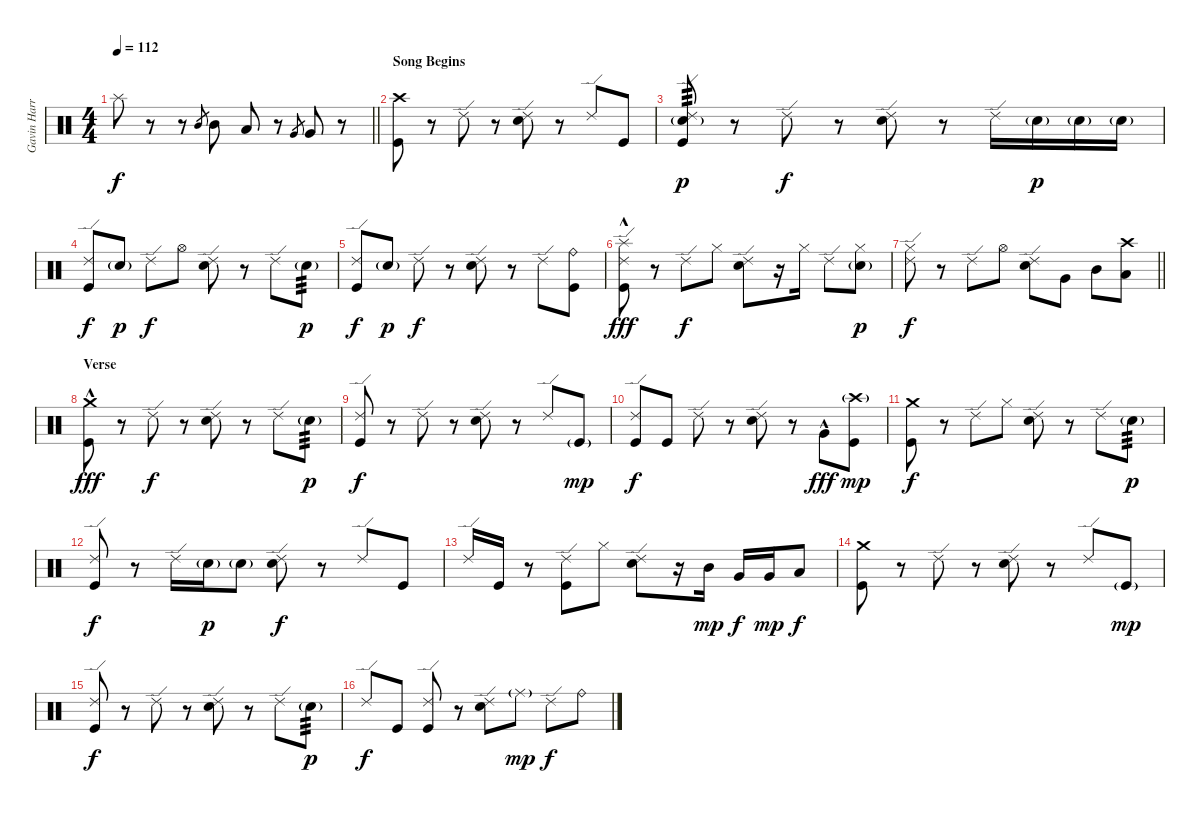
\track ("Gavin Harrison - Drums" "Gavin Harr") {instrument percussion}
\staff {score}
\articulation defaults
\ts (4 4)
\tempo 112
\clef neutral
\barLineRight lightlight
\ks c "Splash (hit)".8{dy f}
r.8 r.8 "Mid Tom (hit)".8{gr} "Mid Tom (hit)".8 "Low Floor Tom (hit)".8 r.8 "Very Low Tom (hit)".8{gr} "Very Low Tom (hit)".8 r.8 |
\section ("" "Song Begins")
("Crash high (hit)" "Kick (hit)").8 r.8 "Ride (edge) 2".8 r.8 ("Ride (edge) 2" "Snare (hit) 2").8 r.8 "Ride (edge) 2".8 "Kick (hit)".8 |
("Ride (edge) 2" "Snare (hit) 2"{g} "Kick (hit)").8{tp 3 dy p} r.8 "Ride (edge) 2".8{dy f} r.8 ("Ride (edge) 2" "Snare (hit) 2").8 r.8 "Ride (edge) 2".16 "Snare (hit) 2"{g}.16{dy p} "Snare (hit) 2"{g}.16 "Snare (hit) 2"{g}.16 |
("Ride (edge) 2" "Kick (hit)").8{dy f} "Snare (hit) 2"{g}.8{dy p} "Ride (edge) 2".8{dy f} "Hi-Hat (open)".8 ("Ride (edge) 2" "Snare (hit) 2").8 r.8 "Ride (edge) 2".8 "Snare (hit) 2"{g}.8{tp 3 dy p} |
("Ride (edge) 2" "Kick (hit)").8{dy f} "Snare (hit) 2"{g}.8{dy p} "Ride (edge) 2".8{dy f} r.8 ("Ride (edge) 2" "Snare (hit) 2").8 r.8 "Ride (edge) 2".8 ("Ride (bell)" "Kick (hit)").8 |
("Ride (edge) 2" "Splash (hit)"{hac} "Kick (hit)").8{dy fff} r.8 "Ride (edge) 2".8{dy f} "Hi-Hat (closed)".8 ("Ride (edge) 2" "Snare (hit) 2").8 r.16 "Hi-Hat (closed)".16 "Ride (edge) 2".8 ("Hi-Hat (closed)" "Snare (hit) 2"{g}).8{dy p} |
\barLineRight lightlight
("Ride (edge) 2" "Hi-Hat (closed)").8{dy f} r.8 "Ride (edge) 2".8 "Hi-Hat (open)".8 ("Ride (edge) 2" "Snare (hit) 2").8 "Very Low Tom (hit)".8 "Mid Tom (hit)".8 ("Crash high (hit)" "Low Floor Tom (hit)").8 |
\section ("" "Verse")
("Crash medium (hit)"{hac} "Kick (hit)").8{dy fff} r.8 "Ride (edge) 2".8{dy f} r.8 ("Ride (edge) 2" "Snare (hit) 2").8 r.8 "Ride (edge) 2".8 "Snare (hit) 2"{g}.8{tp 3 dy p} |
("Ride (edge) 2" "Kick (hit)").8{dy f} r.8 "Ride (edge) 2".8 r.8 ("Ride (edge) 2" "Snare (hit) 2").8 r.8 "Ride (edge) 2".8 "Kick (hit)"{g}.8{dy mp} |
("Ride (edge) 2" "Kick (hit)").8{dy f} "Kick (hit)".8 "Ride (edge) 2".8 r.8 ("Ride (edge) 2" "Snare (hit) 2").8 r.8 "Very Low Tom (hit)"{hac}.8{dy fff} ("Crash high (hit)"{g} "Kick (hit)").8{dy mp} |
("Crash medium (hit)" "Kick (hit)").8{dy f} r.8 "Ride (edge) 2".8 "Hi-Hat (closed)".8 ("Ride (edge) 2" "Snare (hit) 2").8 r.8 "Ride (edge) 2".8 "Snare (hit) 2"{g}.8{tp 3 dy p} |
("Ride (edge) 2" "Kick (hit)").8{dy f} r.8 "Ride (edge) 2".16 "Snare (hit) 2"{g}.16{dy p} "Snare (hit) 2"{g}.8 ("Ride (edge) 2" "Snare (hit) 2").8{dy f} r.8 "Ride (edge) 2".8 "Kick (hit)".8 |
"Ride (edge) 2".16 "Kick (hit)".16 r.8 ("Ride (edge) 2" "Kick (hit)").8 "Hi-Hat (closed)".8 ("Ride (edge) 2" "Snare (hit) 2").8 r.16 "Mid Tom (hit)".16{dy mp} "Very Low Tom (hit)".16{dy f} "Very Low Tom (hit)".16{dy mp} "Low Floor Tom (hit)".8{dy f} |
("Crash medium (hit)" "Kick (hit)").8 r.8 "Ride (edge) 2".8 r.8 ("Ride (edge) 2" "Snare (hit) 2").8 r.8 "Ride (edge) 2".8 "Kick (hit)"{g}.8{dy mp} |
("Ride (edge) 2" "Kick (hit)").8{dy f} r.8 "Ride (edge) 2".8 r.8 ("Ride (edge) 2" "Snare (hit) 2").8 r.8 "Ride (edge) 2".8 "Snare (hit) 2"{g}.8{tp 3 dy p} |
"Ride (edge) 2".8{dy f} "Kick (hit)".8 ("Ride (edge) 2" "Kick (hit)").8 r.8 ("Ride (edge) 2" "Snare (hit) 2").8 "Ride (middle)"{g}.8{dy mp} "Ride (edge) 2".8{dy f} "Ride (bell)".8
